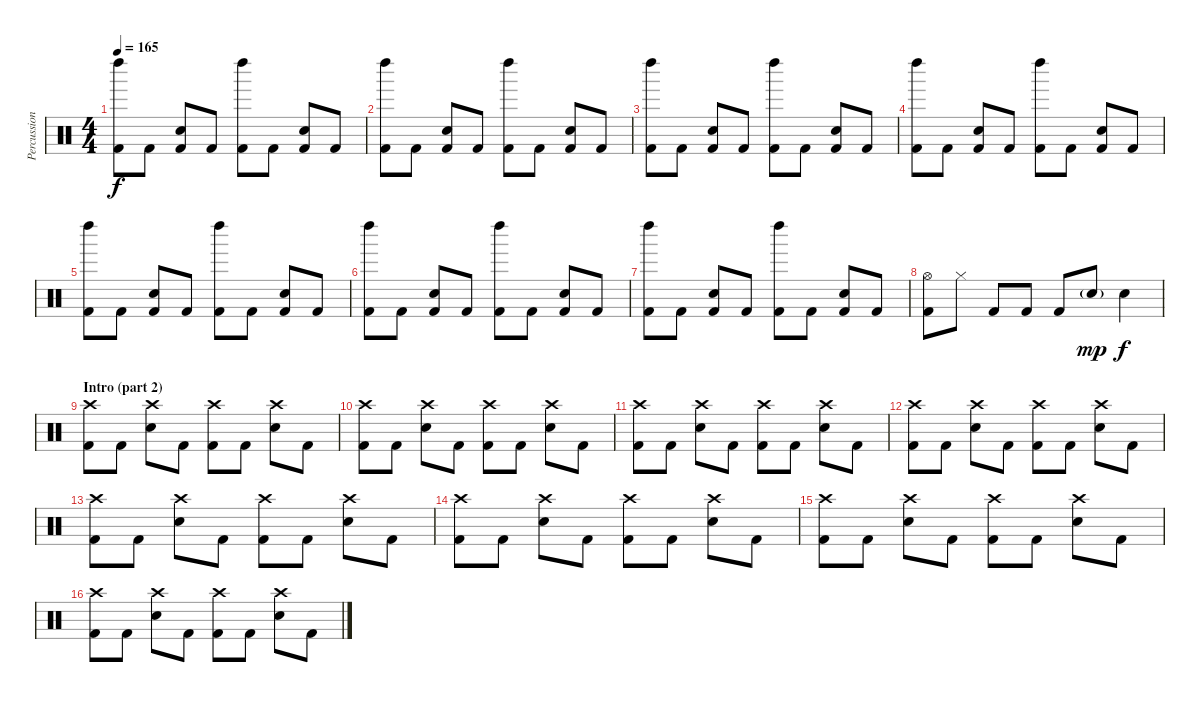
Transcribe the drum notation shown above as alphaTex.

\track ("Percussion" "Percussion") {instrument percussion}
\staff {score}
\articulation defaults
\ts (4 4)
\tempo 165
\clef neutral
\ks c
("Left Maraca (hit)" "Kick (hit) 2").8{dy f} "Kick (hit) 2".8 ("Electric Snare (hit)" "Kick (hit) 2").8 "Kick (hit) 2".8 ("Left Maraca (hit)" "Kick (hit) 2").8 "Kick (hit) 2".8 ("Electric Snare (hit)" "Kick (hit) 2").8 "Kick (hit) 2".8 |
("Left Maraca (hit)" "Kick (hit) 2").8 "Kick (hit) 2".8 ("Electric Snare (hit)" "Kick (hit) 2").8 "Kick (hit) 2".8 ("Left Maraca (hit)" "Kick (hit) 2").8 "Kick (hit) 2".8 ("Electric Snare (hit)" "Kick (hit) 2").8 "Kick (hit) 2".8 |
("Left Maraca (hit)" "Kick (hit) 2").8 "Kick (hit) 2".8 ("Electric Snare (hit)" "Kick (hit) 2").8 "Kick (hit) 2".8 ("Left Maraca (hit)" "Kick (hit) 2").8 "Kick (hit) 2".8 ("Electric Snare (hit)" "Kick (hit) 2").8 "Kick (hit) 2".8 |
("Left Maraca (hit)" "Kick (hit) 2").8 "Kick (hit) 2".8 ("Electric Snare (hit)" "Kick (hit) 2").8 "Kick (hit) 2".8 ("Left Maraca (hit)" "Kick (hit) 2").8 "Kick (hit) 2".8 ("Electric Snare (hit)" "Kick (hit) 2").8 "Kick (hit) 2".8 |
("Left Maraca (hit)" "Kick (hit) 2").8 "Kick (hit) 2".8 ("Electric Snare (hit)" "Kick (hit) 2").8 "Kick (hit) 2".8 ("Left Maraca (hit)" "Kick (hit) 2").8 "Kick (hit) 2".8 ("Electric Snare (hit)" "Kick (hit) 2").8 "Kick (hit) 2".8 |
("Left Maraca (hit)" "Kick (hit) 2").8 "Kick (hit) 2".8 ("Electric Snare (hit)" "Kick (hit) 2").8 "Kick (hit) 2".8 ("Left Maraca (hit)" "Kick (hit) 2").8 "Kick (hit) 2".8 ("Electric Snare (hit)" "Kick (hit) 2").8 "Kick (hit) 2".8 |
("Left Maraca (hit)" "Kick (hit) 2").8 "Kick (hit) 2".8 ("Electric Snare (hit)" "Kick (hit) 2").8 "Kick (hit) 2".8 ("Left Maraca (hit)" "Kick (hit) 2").8 "Kick (hit) 2".8 ("Electric Snare (hit)" "Kick (hit) 2").8 "Kick (hit) 2".8 |
("Hi-Hat (open)" "Kick (hit) 2").8 "Hi-Hat (closed)".8 "Kick (hit) 2".8 "Kick (hit) 2".8 "Kick (hit) 2".8 "Electric Snare (hit)"{g}.8{dy mp} "Electric Snare (hit)".4{dy f} |
\section ("" "Intro (part 2)")
("Crash high (hit)" "Kick (hit) 2").8 "Kick (hit) 2".8 ("Crash high (hit)" "Electric Snare (hit)").8 "Kick (hit) 2".8 ("Crash high (hit)" "Kick (hit) 2").8 "Kick (hit) 2".8 ("Crash high (hit)" "Electric Snare (hit)").8 "Kick (hit) 2".8 |
("Crash high (hit)" "Kick (hit) 2").8 "Kick (hit) 2".8 ("Crash high (hit)" "Electric Snare (hit)").8 "Kick (hit) 2".8 ("Crash high (hit)" "Kick (hit) 2").8 "Kick (hit) 2".8 ("Crash high (hit)" "Electric Snare (hit)").8 "Kick (hit) 2".8 |
("Crash high (hit)" "Kick (hit) 2").8 "Kick (hit) 2".8 ("Crash high (hit)" "Electric Snare (hit)").8 "Kick (hit) 2".8 ("Crash high (hit)" "Kick (hit) 2").8 "Kick (hit) 2".8 ("Crash high (hit)" "Electric Snare (hit)").8 "Kick (hit) 2".8 |
("Crash high (hit)" "Kick (hit) 2").8 "Kick (hit) 2".8 ("Crash high (hit)" "Electric Snare (hit)").8 "Kick (hit) 2".8 ("Crash high (hit)" "Kick (hit) 2").8 "Kick (hit) 2".8 ("Crash high (hit)" "Electric Snare (hit)").8 "Kick (hit) 2".8 |
("Crash high (hit)" "Kick (hit) 2").8 "Kick (hit) 2".8 ("Crash high (hit)" "Electric Snare (hit)").8 "Kick (hit) 2".8 ("Crash high (hit)" "Kick (hit) 2").8 "Kick (hit) 2".8 ("Crash high (hit)" "Electric Snare (hit)").8 "Kick (hit) 2".8 |
("Crash high (hit)" "Kick (hit) 2").8 "Kick (hit) 2".8 ("Crash high (hit)" "Electric Snare (hit)").8 "Kick (hit) 2".8 ("Crash high (hit)" "Kick (hit) 2").8 "Kick (hit) 2".8 ("Crash high (hit)" "Electric Snare (hit)").8 "Kick (hit) 2".8 |
("Crash high (hit)" "Kick (hit) 2").8 "Kick (hit) 2".8 ("Crash high (hit)" "Electric Snare (hit)").8 "Kick (hit) 2".8 ("Crash high (hit)" "Kick (hit) 2").8 "Kick (hit) 2".8 ("Crash high (hit)" "Electric Snare (hit)").8 "Kick (hit) 2".8 |
("Crash high (hit)" "Kick (hit) 2").8 "Kick (hit) 2".8 ("Crash high (hit)" "Electric Snare (hit)").8 "Kick (hit) 2".8 ("Crash high (hit)" "Kick (hit) 2").8 "Kick (hit) 2".8 ("Crash high (hit)" "Electric Snare (hit)").8 "Kick (hit) 2".8
